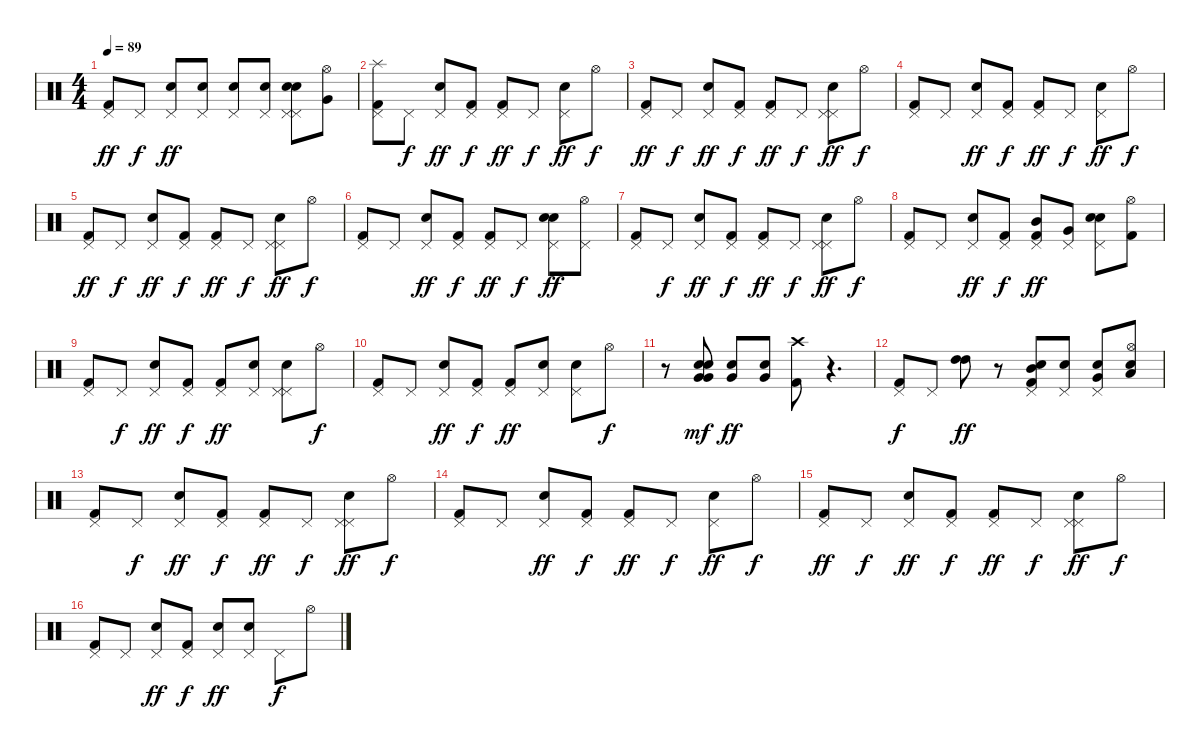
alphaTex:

\track "" {instrument percussion}
\staff {score}
\articulation defaults
\ts (4 4)
\tempo 89
\clef neutral
\ks c
("Pedal Hi-Hat (hit)" "Kick (hit) 2").8{dy ff} "Pedal Hi-Hat (hit)".8{dy f} ("Electric Snare (hit)" "Pedal Hi-Hat (hit)").8{dy ff} ("Pedal Hi-Hat (hit)" "Electric Snare (hit)").8 ("Electric Snare (hit)" "Pedal Hi-Hat (hit)").8 ("Electric Snare (hit)" "Pedal Hi-Hat (hit)").8 ("Electric Snare (hit)" "Pedal Hi-Hat (hit)" "Electric Snare (hit)" "Pedal Hi-Hat (hit)").8 ("Very Low Tom (hit)" "Hi-Hat (open)").8 |
("Splash (hit)" "Kick (hit) 2" "Pedal Hi-Hat (hit)").8 "Pedal Hi-Hat (hit)".8{dy f} ("Pedal Hi-Hat (hit)" "Electric Snare (hit)").8{dy ff} ("Pedal Hi-Hat (hit)" "Kick (hit) 2").8{dy f} ("Kick (hit) 2" "Pedal Hi-Hat (hit)").8{dy ff} "Pedal Hi-Hat (hit)".8{dy f} ("Pedal Hi-Hat (hit)" "Electric Snare (hit)").8{dy ff} "Hi-Hat (open)".8{dy f} |
("Pedal Hi-Hat (hit)" "Kick (hit) 2").8{dy ff} "Pedal Hi-Hat (hit)".8{dy f} ("Electric Snare (hit)" "Pedal Hi-Hat (hit)").8{dy ff} ("Pedal Hi-Hat (hit)" "Kick (hit) 2").8{dy f} ("Pedal Hi-Hat (hit)" "Kick (hit) 2").8{dy ff} "Pedal Hi-Hat (hit)".8{dy f} ("Pedal Hi-Hat (hit)" "Electric Snare (hit)" "Pedal Hi-Hat (hit)").8{dy ff} "Hi-Hat (open)".8{dy f} |
("Kick (hit) 2" "Pedal Hi-Hat (hit)").8 "Pedal Hi-Hat (hit)".8 ("Pedal Hi-Hat (hit)" "Electric Snare (hit)").8{dy ff} ("Pedal Hi-Hat (hit)" "Kick (hit) 2").8{dy f} ("Kick (hit) 2" "Pedal Hi-Hat (hit)").8{dy ff} "Pedal Hi-Hat (hit)".8{dy f} ("Pedal Hi-Hat (hit)" "Electric Snare (hit)").8{dy ff} "Hi-Hat (open)".8{dy f} |
("Pedal Hi-Hat (hit)" "Kick (hit) 2").8{dy ff} "Pedal Hi-Hat (hit)".8{dy f} ("Electric Snare (hit)" "Pedal Hi-Hat (hit)").8{dy ff} ("Pedal Hi-Hat (hit)" "Kick (hit) 2").8{dy f} ("Pedal Hi-Hat (hit)" "Kick (hit) 2").8{dy ff} "Pedal Hi-Hat (hit)".8{dy f} ("Pedal Hi-Hat (hit)" "Electric Snare (hit)" "Pedal Hi-Hat (hit)").8{dy ff} "Hi-Hat (open)".8{dy f} |
("Kick (hit) 2" "Pedal Hi-Hat (hit)").8 "Pedal Hi-Hat (hit)".8 ("Pedal Hi-Hat (hit)" "Electric Snare (hit)").8{dy ff} ("Pedal Hi-Hat (hit)" "Kick (hit) 2").8{dy f} ("Kick (hit) 2" "Pedal Hi-Hat (hit)").8{dy ff} "Pedal Hi-Hat (hit)".8{dy f} ("Pedal Hi-Hat (hit)" "Electric Snare (hit)" "Electric Snare (hit)").8{dy ff} ("Pedal Hi-Hat (hit)" "Hi-Hat (open)").8 |
("Pedal Hi-Hat (hit)" "Kick (hit) 2").8 "Pedal Hi-Hat (hit)".8{dy f} ("Electric Snare (hit)" "Pedal Hi-Hat (hit)").8{dy ff} ("Pedal Hi-Hat (hit)" "Kick (hit) 2").8{dy f} ("Pedal Hi-Hat (hit)" "Kick (hit) 2").8{dy ff} "Pedal Hi-Hat (hit)".8{dy f} ("Pedal Hi-Hat (hit)" "Electric Snare (hit)" "Pedal Hi-Hat (hit)").8{dy ff} "Hi-Hat (open)".8{dy f} |
("Kick (hit) 2" "Pedal Hi-Hat (hit)").8 "Pedal Hi-Hat (hit)".8 ("Pedal Hi-Hat (hit)" "Electric Snare (hit)").8{dy ff} ("Pedal Hi-Hat (hit)" "Kick (hit) 2").8{dy f} ("Kick (hit) 2" "Pedal Hi-Hat (hit)" "Mid Tom (hit)").8{dy ff} ("Pedal Hi-Hat (hit)" "Very Low Tom (hit)").8 ("Pedal Hi-Hat (hit)" "Electric Snare (hit)" "Electric Snare (hit)").8 ("Kick (hit) 2" "Hi-Hat (open)").8 |
("Pedal Hi-Hat (hit)" "Kick (hit) 2").8 "Pedal Hi-Hat (hit)".8{dy f} ("Electric Snare (hit)" "Pedal Hi-Hat (hit)").8{dy ff} ("Pedal Hi-Hat (hit)" "Kick (hit) 2").8{dy f} ("Pedal Hi-Hat (hit)" "Kick (hit) 2").8{dy ff} ("Electric Snare (hit)" "Pedal Hi-Hat (hit)").8 ("Pedal Hi-Hat (hit)" "Electric Snare (hit)" "Pedal Hi-Hat (hit)").8 "Hi-Hat (open)".8{dy f} |
("Kick (hit) 2" "Pedal Hi-Hat (hit)").8 "Pedal Hi-Hat (hit)".8 ("Pedal Hi-Hat (hit)" "Electric Snare (hit)").8{dy ff} ("Pedal Hi-Hat (hit)" "Kick (hit) 2").8{dy f} ("Kick (hit) 2" "Pedal Hi-Hat (hit)").8{dy ff} ("Electric Snare (hit)" "Pedal Hi-Hat (hit)").8 ("Pedal Hi-Hat (hit)" "Electric Snare (hit)").8 "Hi-Hat (open)".8{dy f} |
r.8 ("Very Low Tom (hit)" "Electric Snare (hit)" "Electric Snare (hit)" "Very Low Tom (hit)").8{dy mf} ("Very Low Tom (hit)" "Electric Snare (hit)").8{dy ff} ("Very Low Tom (hit)" "Electric Snare (hit)").8 ("Kick (hit) 2" "Crash high (hit)").8 r.4{d} |
("Kick (hit) 2" "Pedal Hi-Hat (hit)").8{dy f} "Pedal Hi-Hat (hit)".8 ("High Tom (hit)" "High Tom (hit)").8{dy ff} r.8 ("Mid Tom (hit)" "Kick (hit) 2" "Pedal Hi-Hat (hit)" "Electric Snare (hit)").8 ("Pedal Hi-Hat (hit)" "Electric Snare (hit)").8 ("Pedal Hi-Hat (hit)" "Electric Snare (hit)" "Very Low Tom (hit)").8 ("Low Floor Tom (hit)" "Electric Snare (hit)" "Hi-Hat (open)").8 |
("Pedal Hi-Hat (hit)" "Kick (hit) 2").8 "Pedal Hi-Hat (hit)".8{dy f} ("Electric Snare (hit)" "Pedal Hi-Hat (hit)").8{dy ff} ("Pedal Hi-Hat (hit)" "Kick (hit) 2").8{dy f} ("Pedal Hi-Hat (hit)" "Kick (hit) 2").8{dy ff} "Pedal Hi-Hat (hit)".8{dy f} ("Pedal Hi-Hat (hit)" "Electric Snare (hit)" "Pedal Hi-Hat (hit)").8{dy ff} "Hi-Hat (open)".8{dy f} |
("Kick (hit) 2" "Pedal Hi-Hat (hit)").8 "Pedal Hi-Hat (hit)".8 ("Pedal Hi-Hat (hit)" "Electric Snare (hit)").8{dy ff} ("Pedal Hi-Hat (hit)" "Kick (hit) 2").8{dy f} ("Kick (hit) 2" "Pedal Hi-Hat (hit)").8{dy ff} "Pedal Hi-Hat (hit)".8{dy f} ("Pedal Hi-Hat (hit)" "Electric Snare (hit)").8{dy ff} "Hi-Hat (open)".8{dy f} |
("Pedal Hi-Hat (hit)" "Kick (hit) 2").8{dy ff} "Pedal Hi-Hat (hit)".8{dy f} ("Electric Snare (hit)" "Pedal Hi-Hat (hit)").8{dy ff} ("Pedal Hi-Hat (hit)" "Kick (hit) 2").8{dy f} ("Pedal Hi-Hat (hit)" "Kick (hit) 2").8{dy ff} "Pedal Hi-Hat (hit)".8{dy f} ("Pedal Hi-Hat (hit)" "Electric Snare (hit)" "Pedal Hi-Hat (hit)").8{dy ff} "Hi-Hat (open)".8{dy f} |
("Kick (hit) 2" "Pedal Hi-Hat (hit)").8 "Pedal Hi-Hat (hit)".8 ("Pedal Hi-Hat (hit)" "Electric Snare (hit)").8{dy ff} ("Pedal Hi-Hat (hit)" "Kick (hit) 2").8{dy f} ("Electric Snare (hit)" "Pedal Hi-Hat (hit)").8{dy ff} ("Electric Snare (hit)" "Pedal Hi-Hat (hit)").8 "Pedal Hi-Hat (hit)".8{dy f} "Hi-Hat (open)".8
